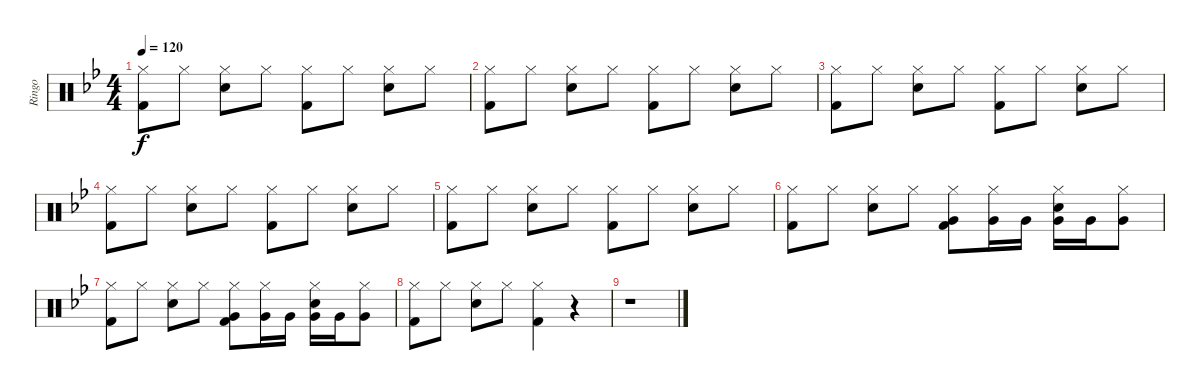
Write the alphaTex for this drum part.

\track ("Ringo" "Ringo") {instrument percussion}
\staff {score}
\articulation defaults
\ts (4 4)
\tempo 120
\clef neutral
\ks bb
("Hi-Hat (closed)" "Kick (hit) 2").8{dy f} "Hi-Hat (closed)".8 ("Hi-Hat (closed)" "Snare (hit) 2").8 "Hi-Hat (closed)".8 ("Hi-Hat (closed)" "Kick (hit) 2").8 "Hi-Hat (closed)".8 ("Hi-Hat (closed)" "Snare (hit) 2").8 "Hi-Hat (closed)".8 |
("Hi-Hat (closed)" "Kick (hit) 2").8 "Hi-Hat (closed)".8 ("Hi-Hat (closed)" "Snare (hit) 2").8 "Hi-Hat (closed)".8 ("Hi-Hat (closed)" "Kick (hit) 2").8 "Hi-Hat (closed)".8 ("Hi-Hat (closed)" "Snare (hit) 2").8 "Hi-Hat (closed)".8 |
("Hi-Hat (closed)" "Kick (hit) 2").8 "Hi-Hat (closed)".8 ("Hi-Hat (closed)" "Snare (hit) 2").8 "Hi-Hat (closed)".8 ("Hi-Hat (closed)" "Kick (hit) 2").8 "Hi-Hat (closed)".8 ("Hi-Hat (closed)" "Snare (hit) 2").8 "Hi-Hat (closed)".8 |
("Hi-Hat (closed)" "Kick (hit) 2").8 "Hi-Hat (closed)".8 ("Hi-Hat (closed)" "Snare (hit) 2").8 "Hi-Hat (closed)".8 ("Hi-Hat (closed)" "Kick (hit) 2").8 "Hi-Hat (closed)".8 ("Hi-Hat (closed)" "Snare (hit) 2").8 "Hi-Hat (closed)".8 |
("Hi-Hat (closed)" "Kick (hit) 2").8 "Hi-Hat (closed)".8 ("Hi-Hat (closed)" "Snare (hit) 2").8 "Hi-Hat (closed)".8 ("Hi-Hat (closed)" "Kick (hit) 2").8 "Hi-Hat (closed)".8 ("Hi-Hat (closed)" "Snare (hit) 2").8 "Hi-Hat (closed)".8 |
("Hi-Hat (closed)" "Kick (hit) 2").8 "Hi-Hat (closed)".8 ("Hi-Hat (closed)" "Snare (hit) 2").8 "Hi-Hat (closed)".8 ("Hi-Hat (closed)" "Very Low Tom (hit)" "Kick (hit) 2").8 ("Hi-Hat (closed)" "Very Low Tom (hit)").16 "Very Low Tom (hit)".16 ("Hi-Hat (closed)" "Snare (hit) 2" "Very Low Tom (hit)").16 "Very Low Tom (hit)".16 ("Hi-Hat (closed)" "Very Low Tom (hit)").8 |
("Hi-Hat (closed)" "Kick (hit) 2").8 "Hi-Hat (closed)".8 ("Hi-Hat (closed)" "Snare (hit) 2").8 "Hi-Hat (closed)".8 ("Hi-Hat (closed)" "Very Low Tom (hit)" "Kick (hit) 2").8 ("Hi-Hat (closed)" "Very Low Tom (hit)").16 "Very Low Tom (hit)".16 ("Hi-Hat (closed)" "Snare (hit) 2" "Very Low Tom (hit)").16 "Very Low Tom (hit)".16 ("Hi-Hat (closed)" "Very Low Tom (hit)").8 |
("Hi-Hat (closed)" "Kick (hit) 2").8 "Hi-Hat (closed)".8 ("Hi-Hat (closed)" "Snare (hit) 2").8 "Hi-Hat (closed)".8 ("Hi-Hat (closed)" "Kick (hit) 2").4 r.4 |
r.1
